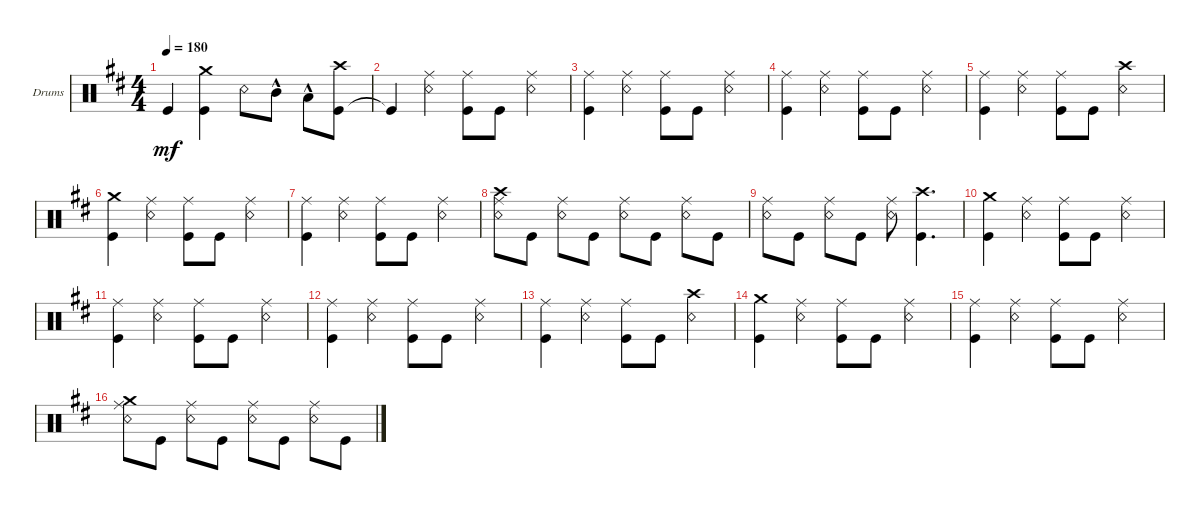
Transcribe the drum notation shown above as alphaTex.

\defaultSystemsLayout 4
\bracketExtendMode groupsimilarinstruments
\firstSystemTrackNameOrientation horizontal
\otherSystemsTrackNameOrientation horizontal
\track ("Drumkit" "Drums") {instrument percussion}
\staff {score}
\articulation defaults
\ts (4 4)
\tempo 180
\clef neutral
\ks bminor "Kick (hit)"{t}.4{dy mf}
("Kick (hit)" "Crash medium (hit)").4 "Snare (rim shot)".8 "Mid Tom (hit)"{hac}.8 "Low Tom (hit)"{hac}.8 ("Kick (hit)" "Crash high (hit)").8 |
"Kick (hit)"{t}.4 ("Ride (middle)" "Snare (rim shot)").4 ("Ride (middle)" "Kick (hit)").8 "Kick (hit)".8 ("Ride (middle)" "Snare (rim shot)").4 |
("Kick (hit)" "Ride (middle)").4 ("Ride (middle)" "Snare (rim shot)").4 ("Ride (middle)" "Kick (hit)").8 "Kick (hit)".8 ("Ride (middle)" "Snare (rim shot)").4 |
("Kick (hit)" "Ride (middle)").4 ("Ride (middle)" "Snare (rim shot)").4 ("Ride (middle)" "Kick (hit)").8 "Kick (hit)".8 ("Ride (middle)" "Snare (rim shot)").4 |
("Kick (hit)" "Ride (middle)").4 ("Ride (middle)" "Snare (rim shot)").4 ("Ride (middle)" "Kick (hit)").8 "Kick (hit)".8 ("Snare (rim shot)" "Crash high (hit)").4 |
("Kick (hit)" "Crash medium (hit)").4 ("Ride (middle)" "Snare (rim shot)").4 ("Ride (middle)" "Kick (hit)").8 "Kick (hit)".8 ("Ride (middle)" "Snare (rim shot)").4 |
("Kick (hit)" "Ride (middle)").4 ("Ride (middle)" "Snare (rim shot)").4 ("Ride (middle)" "Kick (hit)").8 "Kick (hit)".8 ("Ride (middle)" "Snare (rim shot)").4 |
("Snare (rim shot)" "Ride (middle)" "Crash high (hit)").8 "Kick (hit)".8 ("Snare (rim shot)" "Ride (middle)").8 "Kick (hit)".8 ("Snare (rim shot)" "Ride (middle)").8 "Kick (hit)".8 ("Snare (rim shot)" "Ride (middle)").8 "Kick (hit)".8 |
("Snare (rim shot)" "Ride (middle)").8 "Kick (hit)".8 ("Snare (rim shot)" "Ride (middle)").8 "Kick (hit)".8 ("Snare (rim shot)" "Ride (middle)").8 ("Kick (hit)" "Crash high (hit)").4{d} |
("Kick (hit)" "Crash medium (hit)").4 ("Ride (middle)" "Snare (rim shot)").4 ("Ride (middle)" "Kick (hit)").8 "Kick (hit)".8 ("Ride (middle)" "Snare (rim shot)").4 |
("Kick (hit)" "Ride (middle)").4 ("Ride (middle)" "Snare (rim shot)").4 ("Ride (middle)" "Kick (hit)").8 "Kick (hit)".8 ("Ride (middle)" "Snare (rim shot)").4 |
("Kick (hit)" "Ride (middle)").4 ("Ride (middle)" "Snare (rim shot)").4 ("Ride (middle)" "Kick (hit)").8 "Kick (hit)".8 ("Ride (middle)" "Snare (rim shot)").4 |
("Kick (hit)" "Ride (middle)").4 ("Ride (middle)" "Snare (rim shot)").4 ("Ride (middle)" "Kick (hit)").8 "Kick (hit)".8 ("Snare (rim shot)" "Crash high (hit)").4 |
("Kick (hit)" "Crash medium (hit)").4 ("Ride (middle)" "Snare (rim shot)").4 ("Ride (middle)" "Kick (hit)").8 "Kick (hit)".8 ("Ride (middle)" "Snare (rim shot)").4 |
("Kick (hit)" "Ride (middle)").4 ("Ride (middle)" "Snare (rim shot)").4 ("Ride (middle)" "Kick (hit)").8 "Kick (hit)".8 ("Ride (middle)" "Snare (rim shot)").4 |
("Snare (rim shot)" "Ride (middle)" "Crash medium (hit)").8 "Kick (hit)".8 ("Snare (rim shot)" "Ride (middle)").8 "Kick (hit)".8 ("Snare (rim shot)" "Ride (middle)").8 "Kick (hit)".8 ("Snare (rim shot)" "Ride (middle)").8 "Kick (hit)".8
